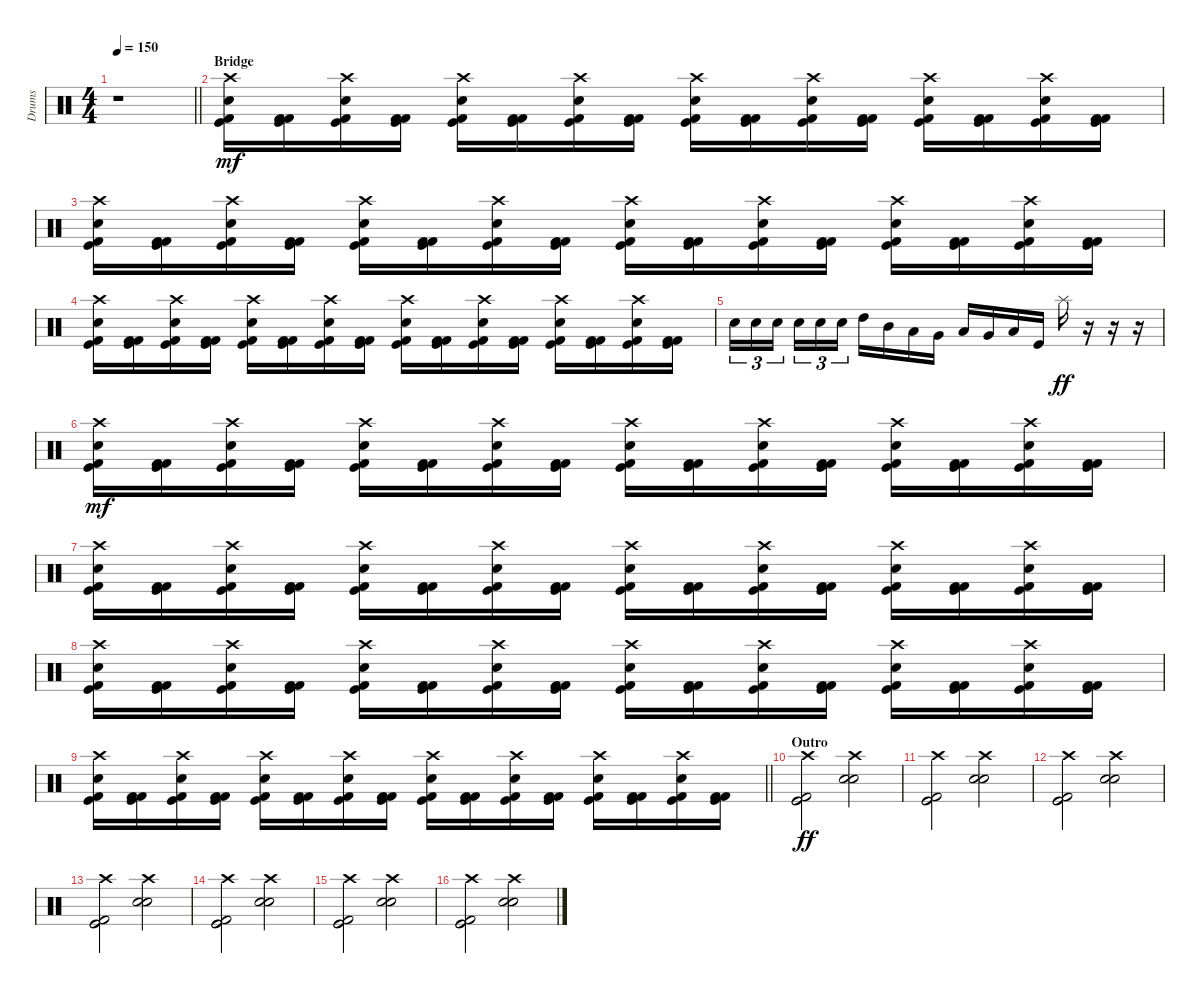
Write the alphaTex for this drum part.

\track ("Drums" "Drums") {instrument percussion}
\staff {score}
\articulation defaults
\ts (4 4)
\tempo 150
\clef neutral
\barLineRight lightlight
\ks c
r.1{dy mf} |
\section ("" "Bridge")
("Crash high (hit)" "Electric Snare (hit)" "Kick (hit)" "Kick (hit) 2").16 ("Kick (hit) 2" "Kick (hit)" "Kick (hit) 2").16 ("Crash high (hit)" "Electric Snare (hit)" "Kick (hit)" "Kick (hit) 2").16 ("Kick (hit) 2" "Kick (hit)" "Kick (hit) 2").16 ("Crash high (hit)" "Electric Snare (hit)" "Kick (hit)" "Kick (hit) 2").16 ("Kick (hit) 2" "Kick (hit)" "Kick (hit) 2").16 ("Crash high (hit)" "Electric Snare (hit)" "Kick (hit)" "Kick (hit) 2").16 ("Kick (hit) 2" "Kick (hit)" "Kick (hit) 2").16 ("Crash high (hit)" "Electric Snare (hit)" "Kick (hit)" "Kick (hit) 2").16 ("Kick (hit) 2" "Kick (hit)" "Kick (hit) 2").16 ("Crash high (hit)" "Electric Snare (hit)" "Kick (hit)" "Kick (hit) 2").16 ("Kick (hit) 2" "Kick (hit)" "Kick (hit) 2").16 ("Crash high (hit)" "Electric Snare (hit)" "Kick (hit)" "Kick (hit) 2").16 ("Kick (hit) 2" "Kick (hit)" "Kick (hit) 2").16 ("Crash high (hit)" "Electric Snare (hit)" "Kick (hit)" "Kick (hit) 2").16 ("Kick (hit) 2" "Kick (hit)" "Kick (hit) 2").16 |
("Crash high (hit)" "Electric Snare (hit)" "Kick (hit)" "Kick (hit) 2").16 ("Kick (hit) 2" "Kick (hit)" "Kick (hit) 2").16 ("Crash high (hit)" "Electric Snare (hit)" "Kick (hit)" "Kick (hit) 2").16 ("Kick (hit) 2" "Kick (hit)" "Kick (hit) 2").16 ("Crash high (hit)" "Electric Snare (hit)" "Kick (hit)" "Kick (hit) 2").16 ("Kick (hit) 2" "Kick (hit)" "Kick (hit) 2").16 ("Crash high (hit)" "Electric Snare (hit)" "Kick (hit)" "Kick (hit) 2").16 ("Kick (hit) 2" "Kick (hit)" "Kick (hit) 2").16 ("Crash high (hit)" "Electric Snare (hit)" "Kick (hit)" "Kick (hit) 2").16 ("Kick (hit) 2" "Kick (hit)" "Kick (hit) 2").16 ("Crash high (hit)" "Electric Snare (hit)" "Kick (hit)" "Kick (hit) 2").16 ("Kick (hit) 2" "Kick (hit)" "Kick (hit) 2").16 ("Crash high (hit)" "Electric Snare (hit)" "Kick (hit)" "Kick (hit) 2").16 ("Kick (hit) 2" "Kick (hit)" "Kick (hit) 2").16 ("Crash high (hit)" "Electric Snare (hit)" "Kick (hit)" "Kick (hit) 2").16 ("Kick (hit) 2" "Kick (hit)" "Kick (hit) 2").16 |
("Crash high (hit)" "Electric Snare (hit)" "Kick (hit)" "Kick (hit) 2").16 ("Kick (hit) 2" "Kick (hit)" "Kick (hit) 2").16 ("Crash high (hit)" "Electric Snare (hit)" "Kick (hit)" "Kick (hit) 2").16 ("Kick (hit) 2" "Kick (hit)" "Kick (hit) 2").16 ("Crash high (hit)" "Electric Snare (hit)" "Kick (hit)" "Kick (hit) 2").16 ("Kick (hit) 2" "Kick (hit)" "Kick (hit) 2").16 ("Crash high (hit)" "Electric Snare (hit)" "Kick (hit)" "Kick (hit) 2").16 ("Kick (hit) 2" "Kick (hit)" "Kick (hit) 2").16 ("Crash high (hit)" "Electric Snare (hit)" "Kick (hit)" "Kick (hit) 2").16 ("Kick (hit) 2" "Kick (hit)" "Kick (hit) 2").16 ("Crash high (hit)" "Electric Snare (hit)" "Kick (hit)" "Kick (hit) 2").16 ("Kick (hit) 2" "Kick (hit)" "Kick (hit) 2").16 ("Crash high (hit)" "Electric Snare (hit)" "Kick (hit)" "Kick (hit) 2").16 ("Kick (hit) 2" "Kick (hit)" "Kick (hit) 2").16 ("Crash high (hit)" "Electric Snare (hit)" "Kick (hit)" "Kick (hit) 2").16 ("Kick (hit) 2" "Kick (hit)" "Kick (hit) 2").16 |
"Electric Snare (hit)".16{tu (3 2)} "Electric Snare (hit)".16{tu (3 2)} "Electric Snare (hit)".16{tu (3 2) beam splitsecondary} "Electric Snare (hit)".16{tu (3 2)} "Electric Snare (hit)".16{tu (3 2)} "Electric Snare (hit)".16{tu (3 2)} "High Tom (hit)".16 "Mid Tom (hit)".16 "Low Tom (hit)".16 "Very Low Tom (hit)".16 "Low Floor Tom (hit)".16 "Very Low Tom (hit)".16 "Low Floor Tom (hit)".16 "Kick (hit)".16 "Splash (hit)".16{dy ff} r.16 r.16 r.16 |
("Crash high (hit)" "Electric Snare (hit)" "Kick (hit)" "Kick (hit) 2").16{dy mf} ("Kick (hit) 2" "Kick (hit)" "Kick (hit) 2").16 ("Crash high (hit)" "Electric Snare (hit)" "Kick (hit)" "Kick (hit) 2").16 ("Kick (hit) 2" "Kick (hit)" "Kick (hit) 2").16 ("Crash high (hit)" "Electric Snare (hit)" "Kick (hit)" "Kick (hit) 2").16 ("Kick (hit) 2" "Kick (hit)" "Kick (hit) 2").16 ("Crash high (hit)" "Electric Snare (hit)" "Kick (hit)" "Kick (hit) 2").16 ("Kick (hit) 2" "Kick (hit)" "Kick (hit) 2").16 ("Crash high (hit)" "Electric Snare (hit)" "Kick (hit)" "Kick (hit) 2").16 ("Kick (hit) 2" "Kick (hit)" "Kick (hit) 2").16 ("Crash high (hit)" "Electric Snare (hit)" "Kick (hit)" "Kick (hit) 2").16 ("Kick (hit) 2" "Kick (hit)" "Kick (hit) 2").16 ("Crash high (hit)" "Electric Snare (hit)" "Kick (hit)" "Kick (hit) 2").16 ("Kick (hit) 2" "Kick (hit)" "Kick (hit) 2").16 ("Crash high (hit)" "Electric Snare (hit)" "Kick (hit)" "Kick (hit) 2").16 ("Kick (hit) 2" "Kick (hit)" "Kick (hit) 2").16 |
("Crash high (hit)" "Electric Snare (hit)" "Kick (hit)" "Kick (hit) 2").16 ("Kick (hit) 2" "Kick (hit)" "Kick (hit) 2").16 ("Crash high (hit)" "Electric Snare (hit)" "Kick (hit)" "Kick (hit) 2").16 ("Kick (hit) 2" "Kick (hit)" "Kick (hit) 2").16 ("Crash high (hit)" "Electric Snare (hit)" "Kick (hit)" "Kick (hit) 2").16 ("Kick (hit) 2" "Kick (hit)" "Kick (hit) 2").16 ("Crash high (hit)" "Electric Snare (hit)" "Kick (hit)" "Kick (hit) 2").16 ("Kick (hit) 2" "Kick (hit)" "Kick (hit) 2").16 ("Crash high (hit)" "Electric Snare (hit)" "Kick (hit)" "Kick (hit) 2").16 ("Kick (hit) 2" "Kick (hit)" "Kick (hit) 2").16 ("Crash high (hit)" "Electric Snare (hit)" "Kick (hit)" "Kick (hit) 2").16 ("Kick (hit) 2" "Kick (hit)" "Kick (hit) 2").16 ("Crash high (hit)" "Electric Snare (hit)" "Kick (hit)" "Kick (hit) 2").16 ("Kick (hit) 2" "Kick (hit)" "Kick (hit) 2").16 ("Crash high (hit)" "Electric Snare (hit)" "Kick (hit)" "Kick (hit) 2").16 ("Kick (hit) 2" "Kick (hit)" "Kick (hit) 2").16 |
("Crash high (hit)" "Electric Snare (hit)" "Kick (hit)" "Kick (hit) 2").16 ("Kick (hit) 2" "Kick (hit)" "Kick (hit) 2").16 ("Crash high (hit)" "Electric Snare (hit)" "Kick (hit)" "Kick (hit) 2").16 ("Kick (hit) 2" "Kick (hit)" "Kick (hit) 2").16 ("Crash high (hit)" "Electric Snare (hit)" "Kick (hit)" "Kick (hit) 2").16 ("Kick (hit) 2" "Kick (hit)" "Kick (hit) 2").16 ("Crash high (hit)" "Electric Snare (hit)" "Kick (hit)" "Kick (hit) 2").16 ("Kick (hit) 2" "Kick (hit)" "Kick (hit) 2").16 ("Crash high (hit)" "Electric Snare (hit)" "Kick (hit)" "Kick (hit) 2").16 ("Kick (hit) 2" "Kick (hit)" "Kick (hit) 2").16 ("Crash high (hit)" "Electric Snare (hit)" "Kick (hit)" "Kick (hit) 2").16 ("Kick (hit) 2" "Kick (hit)" "Kick (hit) 2").16 ("Crash high (hit)" "Electric Snare (hit)" "Kick (hit)" "Kick (hit) 2").16 ("Kick (hit) 2" "Kick (hit)" "Kick (hit) 2").16 ("Crash high (hit)" "Electric Snare (hit)" "Kick (hit)" "Kick (hit) 2").16 ("Kick (hit) 2" "Kick (hit)" "Kick (hit) 2").16 |
\barLineRight lightlight
("Crash high (hit)" "Electric Snare (hit)" "Kick (hit)" "Kick (hit) 2").16 ("Kick (hit) 2" "Kick (hit)" "Kick (hit) 2").16 ("Crash high (hit)" "Electric Snare (hit)" "Kick (hit)" "Kick (hit) 2").16 ("Kick (hit) 2" "Kick (hit)" "Kick (hit) 2").16 ("Crash high (hit)" "Electric Snare (hit)" "Kick (hit)" "Kick (hit) 2").16 ("Kick (hit) 2" "Kick (hit)" "Kick (hit) 2").16 ("Crash high (hit)" "Electric Snare (hit)" "Kick (hit)" "Kick (hit) 2").16 ("Kick (hit) 2" "Kick (hit)" "Kick (hit) 2").16 ("Crash high (hit)" "Electric Snare (hit)" "Kick (hit)" "Kick (hit) 2").16 ("Kick (hit) 2" "Kick (hit)" "Kick (hit) 2").16 ("Crash high (hit)" "Electric Snare (hit)" "Kick (hit)" "Kick (hit) 2").16 ("Kick (hit) 2" "Kick (hit)" "Kick (hit) 2").16 ("Crash high (hit)" "Electric Snare (hit)" "Kick (hit)" "Kick (hit) 2").16 ("Kick (hit) 2" "Kick (hit)" "Kick (hit) 2").16 ("Crash high (hit)" "Electric Snare (hit)" "Kick (hit)" "Kick (hit) 2").16 ("Kick (hit) 2" "Kick (hit)" "Kick (hit) 2").16 |
\section ("" "Outro")
("Kick (hit) 2" "Crash high (hit)" "Kick (hit)" "Kick (hit)").2{dy ff} ("Crash high (hit)" "Electric Snare (hit)" "Electric Snare (hit)").2 |
("Kick (hit) 2" "Crash high (hit)" "Kick (hit)" "Kick (hit)").2 ("Crash high (hit)" "Electric Snare (hit)" "Electric Snare (hit)").2 |
("Kick (hit) 2" "Crash high (hit)" "Kick (hit)" "Kick (hit)").2 ("Crash high (hit)" "Electric Snare (hit)" "Electric Snare (hit)").2 |
("Kick (hit) 2" "Crash high (hit)" "Kick (hit)" "Kick (hit)").2 ("Crash high (hit)" "Electric Snare (hit)" "Electric Snare (hit)").2 |
("Kick (hit) 2" "Crash high (hit)" "Kick (hit)" "Kick (hit)").2 ("Crash high (hit)" "Electric Snare (hit)" "Electric Snare (hit)").2 |
("Kick (hit) 2" "Crash high (hit)" "Kick (hit)" "Kick (hit)").2 ("Crash high (hit)" "Electric Snare (hit)" "Electric Snare (hit)").2 |
("Kick (hit) 2" "Crash high (hit)" "Kick (hit)" "Kick (hit)").2 ("Crash high (hit)" "Electric Snare (hit)" "Electric Snare (hit)").2
